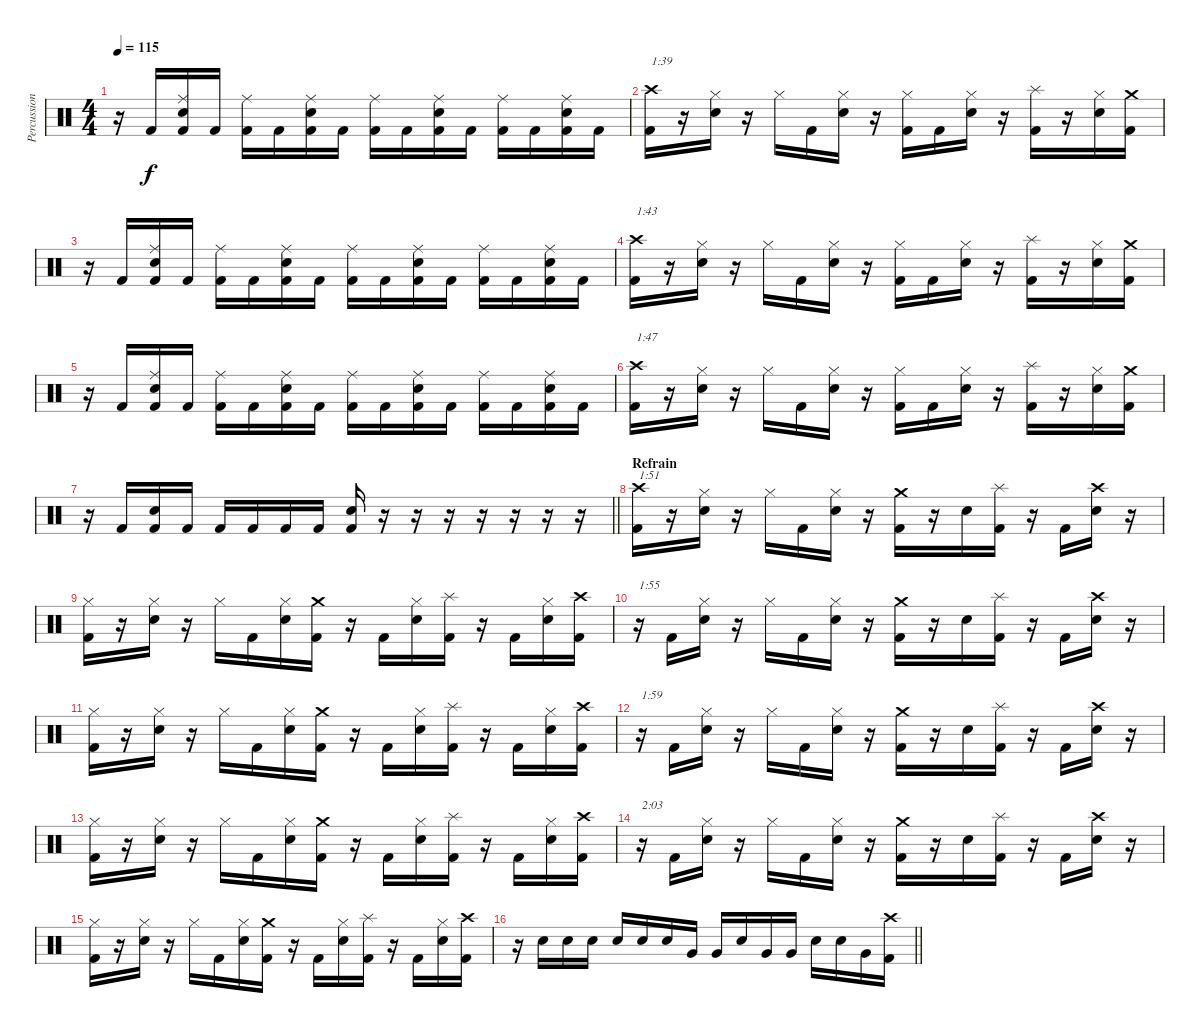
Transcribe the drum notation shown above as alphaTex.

\track ("Percussion" "Percussion") {instrument percussion}
\staff {score}
\articulation defaults
\ts (4 4)
\tempo 115
\clef neutral
\ks c
r.16{dy f} "Kick (hit) 2".16 ("Ride (middle)" "Electric Snare (hit)" "Kick (hit) 2").16 "Kick (hit) 2".16 ("Ride (middle)" "Kick (hit) 2").16 "Kick (hit) 2".16 ("Ride (middle)" "Electric Snare (hit)" "Kick (hit) 2").16 "Kick (hit) 2".16 ("Ride (middle)" "Kick (hit) 2").16 "Kick (hit) 2".16 ("Ride (middle)" "Electric Snare (hit)" "Kick (hit) 2").16 "Kick (hit) 2".16 ("Ride (middle)" "Kick (hit) 2").16 "Kick (hit) 2".16 ("Ride (middle)" "Electric Snare (hit)" "Kick (hit) 2").16 "Kick (hit) 2".16 |
("Crash high (hit)" "Kick (hit) 2").16{txt "1:39"} r.16 ("Hi-Hat (closed)" "Electric Snare (hit)").16 r.16 "Hi-Hat (closed)".16 "Kick (hit) 2".16 ("Hi-Hat (closed)" "Electric Snare (hit)").16 r.16 ("Hi-Hat (closed)" "Kick (hit) 2").16 "Kick (hit) 2".16 ("Hi-Hat (closed)" "Electric Snare (hit)").16 r.16 ("Splash (hit)" "Kick (hit) 2").16 r.16 ("Hi-Hat (closed)" "Electric Snare (hit)").16 ("Crash medium (hit)" "Kick (hit) 2").16 |
r.16 "Kick (hit) 2".16 ("Ride (middle)" "Electric Snare (hit)" "Kick (hit) 2").16 "Kick (hit) 2".16 ("Ride (middle)" "Kick (hit) 2").16 "Kick (hit) 2".16 ("Ride (middle)" "Electric Snare (hit)" "Kick (hit) 2").16 "Kick (hit) 2".16 ("Ride (middle)" "Kick (hit) 2").16 "Kick (hit) 2".16 ("Ride (middle)" "Electric Snare (hit)" "Kick (hit) 2").16 "Kick (hit) 2".16 ("Ride (middle)" "Kick (hit) 2").16 "Kick (hit) 2".16 ("Ride (middle)" "Electric Snare (hit)" "Kick (hit) 2").16 "Kick (hit) 2".16 |
("Crash high (hit)" "Kick (hit) 2").16{txt "1:43"} r.16 ("Hi-Hat (closed)" "Electric Snare (hit)").16 r.16 "Hi-Hat (closed)".16 "Kick (hit) 2".16 ("Hi-Hat (closed)" "Electric Snare (hit)").16 r.16 ("Hi-Hat (closed)" "Kick (hit) 2").16 "Kick (hit) 2".16 ("Hi-Hat (closed)" "Electric Snare (hit)").16 r.16 ("Splash (hit)" "Kick (hit) 2").16 r.16 ("Hi-Hat (closed)" "Electric Snare (hit)").16 ("Crash medium (hit)" "Kick (hit) 2").16 |
r.16 "Kick (hit) 2".16 ("Ride (middle)" "Electric Snare (hit)" "Kick (hit) 2").16 "Kick (hit) 2".16 ("Ride (middle)" "Kick (hit) 2").16 "Kick (hit) 2".16 ("Ride (middle)" "Electric Snare (hit)" "Kick (hit) 2").16 "Kick (hit) 2".16 ("Ride (middle)" "Kick (hit) 2").16 "Kick (hit) 2".16 ("Ride (middle)" "Electric Snare (hit)" "Kick (hit) 2").16 "Kick (hit) 2".16 ("Ride (middle)" "Kick (hit) 2").16 "Kick (hit) 2".16 ("Ride (middle)" "Electric Snare (hit)" "Kick (hit) 2").16 "Kick (hit) 2".16 |
("Crash high (hit)" "Kick (hit) 2").16{txt "1:47"} r.16 ("Hi-Hat (closed)" "Electric Snare (hit)").16 r.16 "Hi-Hat (closed)".16 "Kick (hit) 2".16 ("Hi-Hat (closed)" "Electric Snare (hit)").16 r.16 ("Hi-Hat (closed)" "Kick (hit) 2").16 "Kick (hit) 2".16 ("Hi-Hat (closed)" "Electric Snare (hit)").16 r.16 ("Splash (hit)" "Kick (hit) 2").16 r.16 ("Hi-Hat (closed)" "Electric Snare (hit)").16 ("Crash medium (hit)" "Kick (hit) 2").16 |
\barLineRight lightlight
r.16 "Kick (hit) 2".16 ("Electric Snare (hit)" "Kick (hit) 2").16 "Kick (hit) 2".16 "Kick (hit) 2".16 "Kick (hit) 2".16 "Kick (hit) 2".16 "Kick (hit) 2".16 ("Electric Snare (hit)" "Kick (hit) 2").16 r.16 r.16 r.16 r.16 r.16 r.16 r.16 |
\section ("" "Refrain")
("Crash high (hit)" "Kick (hit) 2").16{txt "1:51"} r.16 ("Hi-Hat (closed)" "Electric Snare (hit)").16 r.16 "Hi-Hat (closed)".16 "Kick (hit) 2".16 ("Hi-Hat (closed)" "Electric Snare (hit)").16 r.16 ("Crash medium (hit)" "Kick (hit) 2").16 r.16 "Electric Snare (hit)".16 ("Splash (hit)" "Kick (hit) 2").16 r.16 "Kick (hit) 2".16 ("Crash high (hit)" "Electric Snare (hit)").16 r.16 |
("Hi-Hat (closed)" "Kick (hit) 2").16 r.16 ("Hi-Hat (closed)" "Electric Snare (hit)").16 r.16 "Hi-Hat (closed)".16 "Kick (hit) 2".16 ("Hi-Hat (closed)" "Electric Snare (hit)").16 ("Crash medium (hit)" "Kick (hit) 2").16 r.16 "Kick (hit) 2".16 ("Hi-Hat (closed)" "Electric Snare (hit)").16 ("Splash (hit)" "Kick (hit) 2").16 r.16 "Kick (hit) 2".16 ("Hi-Hat (closed)" "Electric Snare (hit)").16 ("Crash high (hit)" "Kick (hit) 2").16 |
r.16{txt "1:55"} "Kick (hit) 2".16 ("Hi-Hat (closed)" "Electric Snare (hit)").16 r.16 "Hi-Hat (closed)".16 "Kick (hit) 2".16 ("Hi-Hat (closed)" "Electric Snare (hit)").16 r.16 ("Crash medium (hit)" "Kick (hit) 2").16 r.16 "Electric Snare (hit)".16 ("Splash (hit)" "Kick (hit) 2").16 r.16 "Kick (hit) 2".16 ("Crash high (hit)" "Electric Snare (hit)").16 r.16 |
("Hi-Hat (closed)" "Kick (hit) 2").16 r.16 ("Hi-Hat (closed)" "Electric Snare (hit)").16 r.16 "Hi-Hat (closed)".16 "Kick (hit) 2".16 ("Hi-Hat (closed)" "Electric Snare (hit)").16 ("Crash medium (hit)" "Kick (hit) 2").16 r.16 "Kick (hit) 2".16 ("Hi-Hat (closed)" "Electric Snare (hit)").16 ("Splash (hit)" "Kick (hit) 2").16 r.16 "Kick (hit) 2".16 ("Hi-Hat (closed)" "Electric Snare (hit)").16 ("Crash high (hit)" "Kick (hit) 2").16 |
r.16{txt "1:59"} "Kick (hit) 2".16 ("Hi-Hat (closed)" "Electric Snare (hit)").16 r.16 "Hi-Hat (closed)".16 "Kick (hit) 2".16 ("Hi-Hat (closed)" "Electric Snare (hit)").16 r.16 ("Crash medium (hit)" "Kick (hit) 2").16 r.16 "Electric Snare (hit)".16 ("Splash (hit)" "Kick (hit) 2").16 r.16 "Kick (hit) 2".16 ("Crash high (hit)" "Electric Snare (hit)").16 r.16 |
("Hi-Hat (closed)" "Kick (hit) 2").16 r.16 ("Hi-Hat (closed)" "Electric Snare (hit)").16 r.16 "Hi-Hat (closed)".16 "Kick (hit) 2".16 ("Hi-Hat (closed)" "Electric Snare (hit)").16 ("Crash medium (hit)" "Kick (hit) 2").16 r.16 "Kick (hit) 2".16 ("Hi-Hat (closed)" "Electric Snare (hit)").16 ("Splash (hit)" "Kick (hit) 2").16 r.16 "Kick (hit) 2".16 ("Hi-Hat (closed)" "Electric Snare (hit)").16 ("Crash high (hit)" "Kick (hit) 2").16 |
r.16{txt "2:03"} "Kick (hit) 2".16 ("Hi-Hat (closed)" "Electric Snare (hit)").16 r.16 "Hi-Hat (closed)".16 "Kick (hit) 2".16 ("Hi-Hat (closed)" "Electric Snare (hit)").16 r.16 ("Crash medium (hit)" "Kick (hit) 2").16 r.16 "Electric Snare (hit)".16 ("Splash (hit)" "Kick (hit) 2").16 r.16 "Kick (hit) 2".16 ("Crash high (hit)" "Electric Snare (hit)").16 r.16 |
("Hi-Hat (closed)" "Kick (hit) 2").16 r.16 ("Hi-Hat (closed)" "Electric Snare (hit)").16 r.16 "Hi-Hat (closed)".16 "Kick (hit) 2".16 ("Hi-Hat (closed)" "Electric Snare (hit)").16 ("Crash medium (hit)" "Kick (hit) 2").16 r.16 "Kick (hit) 2".16 ("Hi-Hat (closed)" "Electric Snare (hit)").16 ("Splash (hit)" "Kick (hit) 2").16 r.16 "Kick (hit) 2".16 ("Hi-Hat (closed)" "Electric Snare (hit)").16 ("Crash high (hit)" "Kick (hit) 2").16 |
\barLineRight lightlight
r.16 "Electric Snare (hit)".16 "Electric Snare (hit)".16 "Electric Snare (hit)".16 "Electric Snare (hit)".16 "Electric Snare (hit)".16 "Electric Snare (hit)".16 "Very Low Tom (hit)".16 "Very Low Tom (hit)".16 "Electric Snare (hit)".16 "Very Low Tom (hit)".16 "Very Low Tom (hit)".16 "Electric Snare (hit)".16 "Electric Snare (hit)".16 "Very Low Tom (hit)".16 ("Crash high (hit)" "Kick (hit) 2").16
